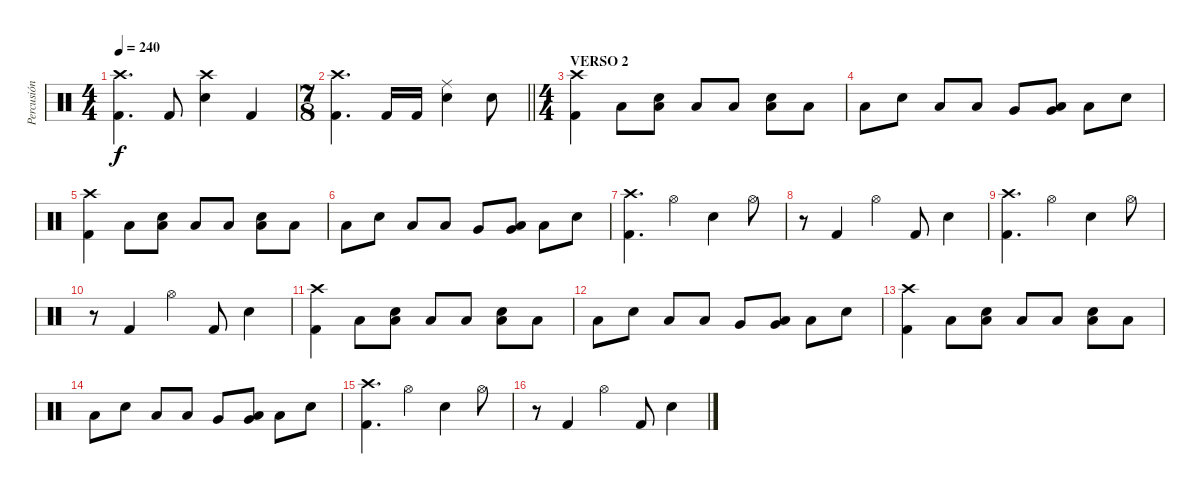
\track ("Percusión" "Percusión") {instrument percussion}
\staff {score}
\articulation defaults
\ts (4 4)
\tempo 240
\clef neutral
\ks c
("Crash high (hit)" "Kick (hit) 2").4{d dy f} "Kick (hit) 2".8 ("Crash high (hit)" "Electric Snare (hit)").4 "Kick (hit) 2".4 |
\ts (7 8)
\barLineRight lightlight
("Crash high (hit)" "Kick (hit) 2").4{d} "Kick (hit) 2".16 "Kick (hit) 2".16 ("Ride (middle)" "Electric Snare (hit)").4 "Electric Snare (hit)".8 |
\ts (4 4)
\section ("" "VERSO 2 ")
("Crash high (hit)" "Kick (hit) 2").4 "Low Floor Tom (hit)".8 ("Electric Snare (hit)" "Low Floor Tom (hit)").8 "Low Floor Tom (hit)".8 "Low Floor Tom (hit)".8 ("Electric Snare (hit)" "Low Floor Tom (hit)").8 "Low Floor Tom (hit)".8 |
"Low Floor Tom (hit)".8 "Electric Snare (hit)".8 "Low Tom (hit)".8 "Low Tom (hit)".8 "Very Low Tom (hit)".8 ("Very Low Tom (hit)" "Low Floor Tom (hit)").8 "Low Floor Tom (hit)".8 "Electric Snare (hit)".8 |
("Crash high (hit)" "Kick (hit) 2").4 "Low Floor Tom (hit)".8 ("Electric Snare (hit)" "Low Floor Tom (hit)").8 "Low Floor Tom (hit)".8 "Low Floor Tom (hit)".8 ("Electric Snare (hit)" "Low Floor Tom (hit)").8 "Low Floor Tom (hit)".8 |
"Low Floor Tom (hit)".8 "Electric Snare (hit)".8 "Low Tom (hit)".8 "Low Tom (hit)".8 "Very Low Tom (hit)".8 ("Very Low Tom (hit)" "Low Floor Tom (hit)").8 "Low Floor Tom (hit)".8 "Electric Snare (hit)".8 |
("Crash high (hit)" "Kick (hit) 2").4{d} "Hi-Hat (open)".4 "Electric Snare (hit)".4 "Hi-Hat (open)".8 |
r.8 "Kick (hit) 2".4 "Hi-Hat (open)".4 "Kick (hit) 2".8 "Electric Snare (hit)".4 |
("Crash high (hit)" "Kick (hit) 2").4{d} "Hi-Hat (open)".4 "Electric Snare (hit)".4 "Hi-Hat (open)".8 |
r.8 "Kick (hit) 2".4 "Hi-Hat (open)".4 "Kick (hit) 2".8 "Electric Snare (hit)".4 |
("Crash high (hit)" "Kick (hit) 2").4 "Low Floor Tom (hit)".8 ("Electric Snare (hit)" "Low Floor Tom (hit)").8 "Low Floor Tom (hit)".8 "Low Floor Tom (hit)".8 ("Electric Snare (hit)" "Low Floor Tom (hit)").8 "Low Floor Tom (hit)".8 |
"Low Floor Tom (hit)".8 "Electric Snare (hit)".8 "Low Tom (hit)".8 "Low Tom (hit)".8 "Very Low Tom (hit)".8 ("Very Low Tom (hit)" "Low Floor Tom (hit)").8 "Low Floor Tom (hit)".8 "Electric Snare (hit)".8 |
("Crash high (hit)" "Kick (hit) 2").4 "Low Floor Tom (hit)".8 ("Electric Snare (hit)" "Low Floor Tom (hit)").8 "Low Floor Tom (hit)".8 "Low Floor Tom (hit)".8 ("Electric Snare (hit)" "Low Floor Tom (hit)").8 "Low Floor Tom (hit)".8 |
"Low Floor Tom (hit)".8 "Electric Snare (hit)".8 "Low Tom (hit)".8 "Low Tom (hit)".8 "Very Low Tom (hit)".8 ("Very Low Tom (hit)" "Low Floor Tom (hit)").8 "Low Floor Tom (hit)".8 "Electric Snare (hit)".8 |
("Crash high (hit)" "Kick (hit) 2").4{d} "Hi-Hat (open)".4 "Electric Snare (hit)".4 "Hi-Hat (open)".8 |
r.8 "Kick (hit) 2".4 "Hi-Hat (open)".4 "Kick (hit) 2".8 "Electric Snare (hit)".4
